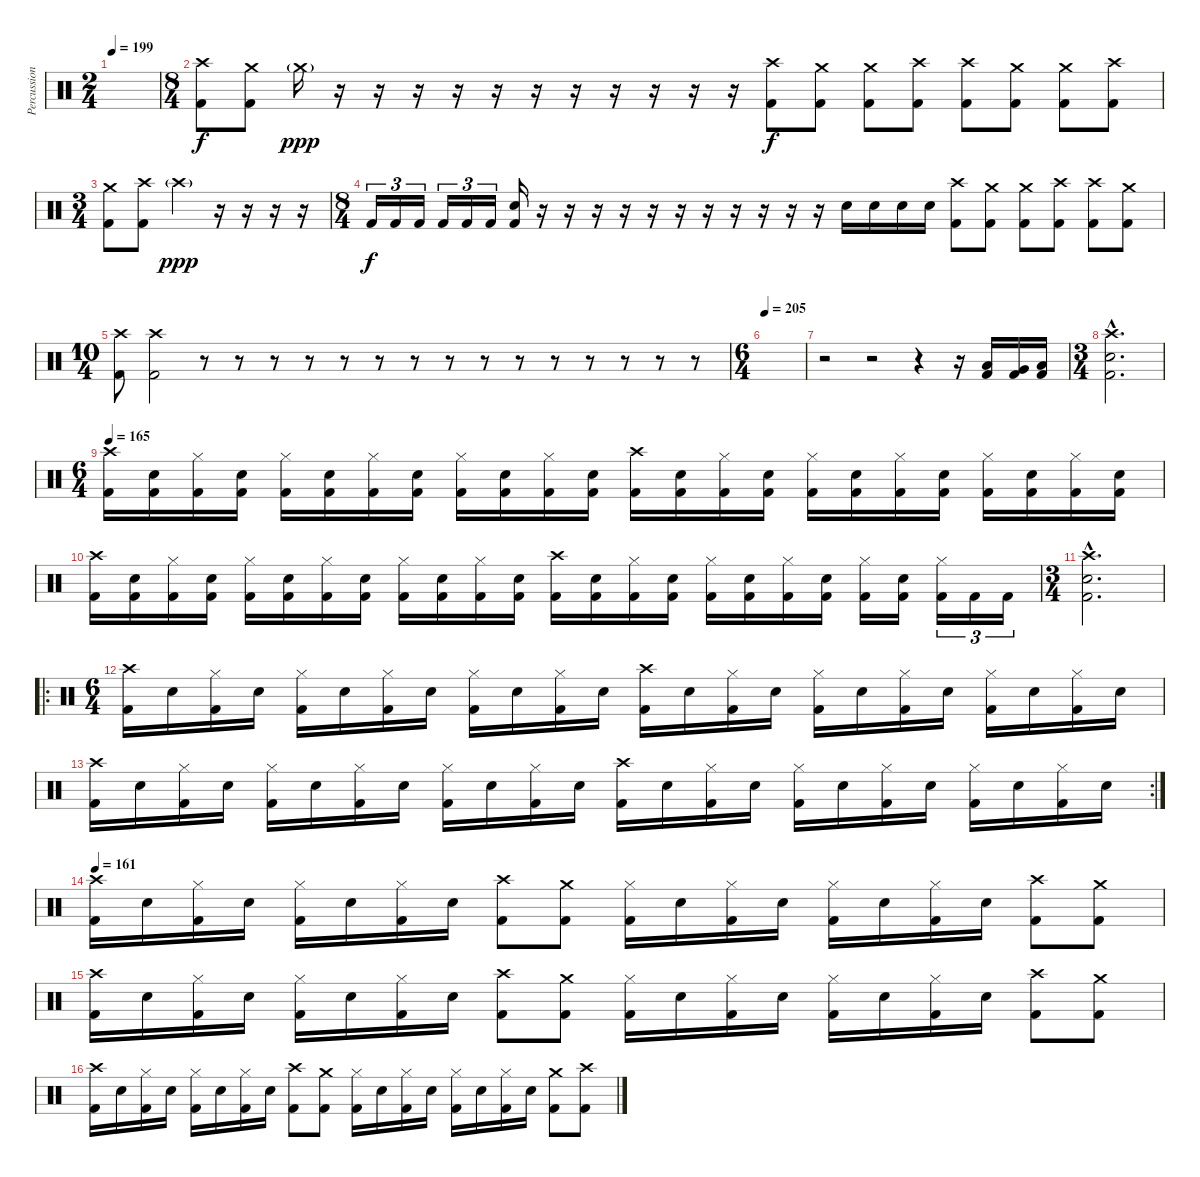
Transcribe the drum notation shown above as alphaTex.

\track ("Percussion" "Percussion") {instrument percussion}
\staff {score}
\articulation defaults
\ts (2 4)
\tempo 199
\clef neutral
\ks c
|
\ts (8 4)
("Crash high (hit)" "Kick (hit) 2").8 ("Crash medium (hit)" "Kick (hit) 2").8 "Crash medium (hit)"{g}.16{dy ppp} r.16 r.16 r.16 r.16 r.16 r.16 r.16 r.16 r.16 r.16 r.16 ("Crash high (hit)" "Kick (hit) 2").8{dy f} ("Crash medium (hit)" "Kick (hit) 2").8 ("Crash medium (hit)" "Kick (hit) 2").8 ("Crash high (hit)" "Kick (hit) 2").8 ("Crash high (hit)" "Kick (hit) 2").8 ("Crash medium (hit)" "Kick (hit) 2").8 ("Crash medium (hit)" "Kick (hit) 2").8 ("Crash high (hit)" "Kick (hit) 2").8 |
\ts (3 4)
("Crash medium (hit)" "Kick (hit) 2").8 ("Crash high (hit)" "Kick (hit) 2").8 "Crash high (hit)"{g}.4{dy ppp} r.16 r.16 r.16 r.16 |
\ts (8 4)
"Kick (hit) 2".16{tu (3 2) dy f} "Kick (hit) 2".16{tu (3 2)} "Kick (hit) 2".16{tu (3 2)} "Kick (hit) 2".16{tu (3 2)} "Kick (hit) 2".16{tu (3 2)} "Kick (hit) 2".16{tu (3 2)} ("Snare (hit) 2" "Kick (hit) 2").16 r.16 r.16 r.16 r.16 r.16 r.16 r.16 r.16 r.16 r.16 r.16 "Snare (hit) 2".16 "Snare (hit) 2".16 "Snare (hit) 2".16 "Snare (hit) 2".16 ("Crash high (hit)" "Kick (hit) 2").8 ("Crash medium (hit)" "Kick (hit) 2").8 ("Crash medium (hit)" "Kick (hit) 2").8 ("Crash high (hit)" "Kick (hit) 2").8 ("Crash high (hit)" "Kick (hit) 2").8 ("Crash medium (hit)" "Kick (hit) 2").8 |
\ts (10 4)
("Crash high (hit)" "Kick (hit) 2").8 ("Crash high (hit)" "Kick (hit) 2").2 r.8 r.8 r.8 r.8 r.8 r.8 r.8 r.8 r.8 r.8 r.8 r.8 r.8 r.8 r.8 |
\ts (6 4)
\tempo 205
|
r.2 r.2 r.4 r.16 ("Low Tom (hit)" "Kick (hit) 2").16 ("Very Low Tom (hit)" "Kick (hit) 2").16 ("Low Floor Tom (hit)" "Kick (hit) 2").16 |
\ts (3 4)
("Crash high (hit)"{hac} "Snare (hit) 2"{hac} "Kick (hit) 2"{hac}).2{d} |
\ts (6 4)
\tempo 165
("Crash high (hit)" "Kick (hit) 2").16 ("Snare (hit) 2" "Kick (hit) 2").16 ("Hi-Hat (closed)" "Kick (hit) 2").16 ("Snare (hit) 2" "Kick (hit) 2").16 ("Hi-Hat (closed)" "Kick (hit) 2").16 ("Snare (hit) 2" "Kick (hit) 2").16 ("Hi-Hat (closed)" "Kick (hit) 2").16 ("Snare (hit) 2" "Kick (hit) 2").16 ("Hi-Hat (closed)" "Kick (hit) 2").16 ("Snare (hit) 2" "Kick (hit) 2").16 ("Hi-Hat (closed)" "Kick (hit) 2").16 ("Snare (hit) 2" "Kick (hit) 2").16 ("Crash high (hit)" "Kick (hit) 2").16 ("Snare (hit) 2" "Kick (hit) 2").16 ("Hi-Hat (closed)" "Kick (hit) 2").16 ("Snare (hit) 2" "Kick (hit) 2").16 ("Hi-Hat (closed)" "Kick (hit) 2").16 ("Snare (hit) 2" "Kick (hit) 2").16 ("Hi-Hat (closed)" "Kick (hit) 2").16 ("Snare (hit) 2" "Kick (hit) 2").16 ("Hi-Hat (closed)" "Kick (hit) 2").16 ("Snare (hit) 2" "Kick (hit) 2").16 ("Hi-Hat (closed)" "Kick (hit) 2").16 ("Snare (hit) 2" "Kick (hit) 2").16 |
("Crash high (hit)" "Kick (hit) 2").16 ("Snare (hit) 2" "Kick (hit) 2").16 ("Hi-Hat (closed)" "Kick (hit) 2").16 ("Snare (hit) 2" "Kick (hit) 2").16 ("Hi-Hat (closed)" "Kick (hit) 2").16 ("Snare (hit) 2" "Kick (hit) 2").16 ("Hi-Hat (closed)" "Kick (hit) 2").16 ("Snare (hit) 2" "Kick (hit) 2").16 ("Hi-Hat (closed)" "Kick (hit) 2").16 ("Snare (hit) 2" "Kick (hit) 2").16 ("Hi-Hat (closed)" "Kick (hit) 2").16 ("Snare (hit) 2" "Kick (hit) 2").16 ("Crash high (hit)" "Kick (hit) 2").16 ("Snare (hit) 2" "Kick (hit) 2").16 ("Hi-Hat (closed)" "Kick (hit) 2").16 ("Snare (hit) 2" "Kick (hit) 2").16 ("Hi-Hat (closed)" "Kick (hit) 2").16 ("Snare (hit) 2" "Kick (hit) 2").16 ("Hi-Hat (closed)" "Kick (hit) 2").16 ("Snare (hit) 2" "Kick (hit) 2").16 ("Hi-Hat (closed)" "Kick (hit) 2").16 ("Snare (hit) 2" "Kick (hit) 2").16 ("Hi-Hat (closed)" "Kick (hit) 2").16{tu (3 2)} "Kick (hit) 2".16{tu (3 2)} "Kick (hit) 2".16{tu (3 2)} |
\ts (3 4)
("Crash high (hit)"{hac} "Snare (hit) 2"{hac} "Kick (hit) 2"{hac}).2{d} |
\ro
\ts (6 4)
("Crash high (hit)" "Kick (hit) 2").16 "Snare (hit) 2".16 ("Hi-Hat (closed)" "Kick (hit) 2").16 "Snare (hit) 2".16 ("Hi-Hat (closed)" "Kick (hit) 2").16 "Snare (hit) 2".16 ("Hi-Hat (closed)" "Kick (hit) 2").16 "Snare (hit) 2".16 ("Hi-Hat (closed)" "Kick (hit) 2").16 "Snare (hit) 2".16 ("Hi-Hat (closed)" "Kick (hit) 2").16 "Snare (hit) 2".16 ("Crash high (hit)" "Kick (hit) 2").16 "Snare (hit) 2".16 ("Hi-Hat (closed)" "Kick (hit) 2").16 "Snare (hit) 2".16 ("Hi-Hat (closed)" "Kick (hit) 2").16 "Snare (hit) 2".16 ("Hi-Hat (closed)" "Kick (hit) 2").16 "Snare (hit) 2".16 ("Hi-Hat (closed)" "Kick (hit) 2").16 "Snare (hit) 2".16 ("Hi-Hat (closed)" "Kick (hit) 2").16 "Snare (hit) 2".16 |
\rc 2
("Crash high (hit)" "Kick (hit) 2").16 "Snare (hit) 2".16 ("Hi-Hat (closed)" "Kick (hit) 2").16 "Snare (hit) 2".16 ("Hi-Hat (closed)" "Kick (hit) 2").16 "Snare (hit) 2".16 ("Hi-Hat (closed)" "Kick (hit) 2").16 "Snare (hit) 2".16 ("Hi-Hat (closed)" "Kick (hit) 2").16 "Snare (hit) 2".16 ("Hi-Hat (closed)" "Kick (hit) 2").16 "Snare (hit) 2".16 ("Crash high (hit)" "Kick (hit) 2").16 "Snare (hit) 2".16 ("Hi-Hat (closed)" "Kick (hit) 2").16 "Snare (hit) 2".16 ("Hi-Hat (closed)" "Kick (hit) 2").16 "Snare (hit) 2".16 ("Hi-Hat (closed)" "Kick (hit) 2").16 "Snare (hit) 2".16 ("Hi-Hat (closed)" "Kick (hit) 2").16 "Snare (hit) 2".16 ("Hi-Hat (closed)" "Kick (hit) 2").16 "Snare (hit) 2".16 |
\tempo 161
("Crash high (hit)" "Kick (hit) 2").16 "Snare (hit) 2".16 ("Hi-Hat (closed)" "Kick (hit) 2").16 "Snare (hit) 2".16 ("Hi-Hat (closed)" "Kick (hit) 2").16 "Snare (hit) 2".16 ("Hi-Hat (closed)" "Kick (hit) 2").16 "Snare (hit) 2".16 ("Crash high (hit)" "Kick (hit) 2").8 ("Crash medium (hit)" "Kick (hit) 2").8 ("Hi-Hat (closed)" "Kick (hit) 2").16 "Snare (hit) 2".16 ("Hi-Hat (closed)" "Kick (hit) 2").16 "Snare (hit) 2".16 ("Hi-Hat (closed)" "Kick (hit) 2").16 "Snare (hit) 2".16 ("Hi-Hat (closed)" "Kick (hit) 2").16 "Snare (hit) 2".16 ("Crash high (hit)" "Kick (hit) 2").8 ("Crash medium (hit)" "Kick (hit) 2").8 |
("Crash high (hit)" "Kick (hit) 2").16 "Snare (hit) 2".16 ("Hi-Hat (closed)" "Kick (hit) 2").16 "Snare (hit) 2".16 ("Hi-Hat (closed)" "Kick (hit) 2").16 "Snare (hit) 2".16 ("Hi-Hat (closed)" "Kick (hit) 2").16 "Snare (hit) 2".16 ("Crash high (hit)" "Kick (hit) 2").8 ("Crash medium (hit)" "Kick (hit) 2").8 ("Hi-Hat (closed)" "Kick (hit) 2").16 "Snare (hit) 2".16 ("Hi-Hat (closed)" "Kick (hit) 2").16 "Snare (hit) 2".16 ("Hi-Hat (closed)" "Kick (hit) 2").16 "Snare (hit) 2".16 ("Hi-Hat (closed)" "Kick (hit) 2").16 "Snare (hit) 2".16 ("Crash high (hit)" "Kick (hit) 2").8 ("Crash medium (hit)" "Kick (hit) 2").8 |
("Crash high (hit)" "Kick (hit) 2").16 "Snare (hit) 2".16 ("Hi-Hat (closed)" "Kick (hit) 2").16 "Snare (hit) 2".16 ("Hi-Hat (closed)" "Kick (hit) 2").16 "Snare (hit) 2".16 ("Hi-Hat (closed)" "Kick (hit) 2").16 "Snare (hit) 2".16 ("Crash high (hit)" "Kick (hit) 2").8 ("Crash medium (hit)" "Kick (hit) 2").8 ("Hi-Hat (closed)" "Kick (hit) 2").16 "Snare (hit) 2".16 ("Hi-Hat (closed)" "Kick (hit) 2").16 "Snare (hit) 2".16 ("Hi-Hat (closed)" "Kick (hit) 2").16 "Snare (hit) 2".16 ("Hi-Hat (closed)" "Kick (hit) 2").16 "Snare (hit) 2".16 ("Crash medium (hit)" "Kick (hit) 2").8 ("Crash high (hit)" "Kick (hit) 2").8
